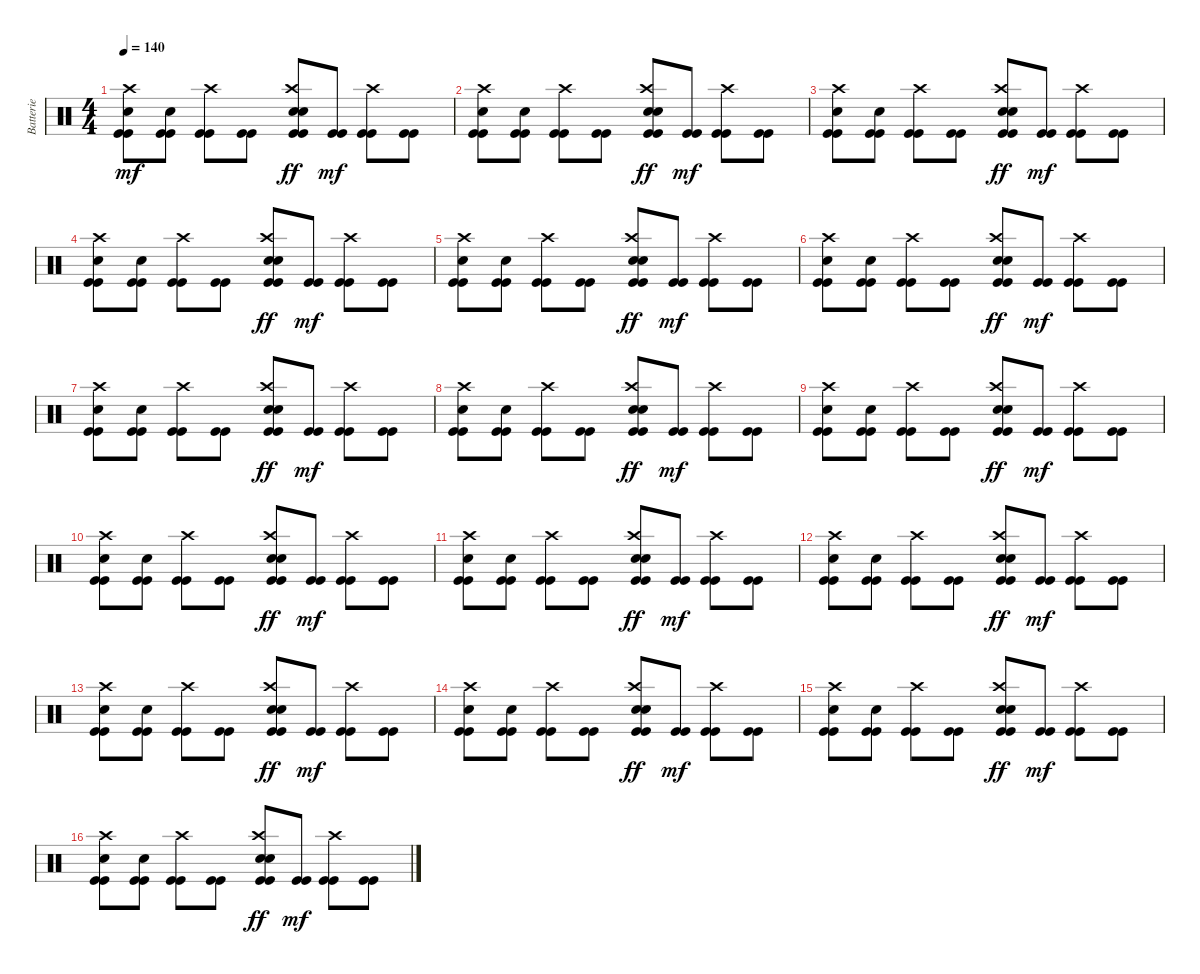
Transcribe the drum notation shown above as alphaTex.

\track ("Batterie " "Batterie ") {instrument percussion}
\staff {score}
\articulation defaults
\ts (4 4)
\tempo 140
\clef neutral
\ks c
("Kick (hit)" "Kick (hit)" "Snare (hit) 2" "Crash high (hit)").8{dy mf} ("Kick (hit)" "Kick (hit)" "Snare (hit) 2").8 ("Kick (hit)" "Kick (hit)" "Crash high (hit)").8 ("Kick (hit)" "Kick (hit)").8 ("Kick (hit)" "Kick (hit)" "Electric Snare (hit)" "Electric Snare (hit)" "Crash high (hit)").8{dy ff} ("Kick (hit)" "Kick (hit)").8{dy mf} ("Kick (hit)" "Kick (hit)" "Crash high (hit)").8 ("Kick (hit)" "Kick (hit)").8 |
("Kick (hit)" "Kick (hit)" "Snare (hit) 2" "Crash high (hit)").8 ("Kick (hit)" "Kick (hit)" "Snare (hit) 2").8 ("Kick (hit)" "Kick (hit)" "Crash high (hit)").8 ("Kick (hit)" "Kick (hit)").8 ("Kick (hit)" "Kick (hit)" "Electric Snare (hit)" "Electric Snare (hit)" "Crash high (hit)").8{dy ff} ("Kick (hit)" "Kick (hit)").8{dy mf} ("Kick (hit)" "Kick (hit)" "Crash high (hit)").8 ("Kick (hit)" "Kick (hit)").8 |
("Kick (hit)" "Kick (hit)" "Snare (hit) 2" "Crash high (hit)").8 ("Kick (hit)" "Kick (hit)" "Snare (hit) 2").8 ("Kick (hit)" "Kick (hit)" "Crash high (hit)").8 ("Kick (hit)" "Kick (hit)").8 ("Kick (hit)" "Kick (hit)" "Electric Snare (hit)" "Electric Snare (hit)" "Crash high (hit)").8{dy ff} ("Kick (hit)" "Kick (hit)").8{dy mf} ("Kick (hit)" "Kick (hit)" "Crash high (hit)").8 ("Kick (hit)" "Kick (hit)").8 |
("Kick (hit)" "Kick (hit)" "Snare (hit) 2" "Crash high (hit)").8 ("Kick (hit)" "Kick (hit)" "Snare (hit) 2").8 ("Kick (hit)" "Kick (hit)" "Crash high (hit)").8 ("Kick (hit)" "Kick (hit)").8 ("Kick (hit)" "Kick (hit)" "Electric Snare (hit)" "Electric Snare (hit)" "Crash high (hit)").8{dy ff} ("Kick (hit)" "Kick (hit)").8{dy mf} ("Kick (hit)" "Kick (hit)" "Crash high (hit)").8 ("Kick (hit)" "Kick (hit)").8 |
("Kick (hit)" "Kick (hit)" "Snare (hit) 2" "Crash high (hit)").8 ("Kick (hit)" "Kick (hit)" "Snare (hit) 2").8 ("Kick (hit)" "Kick (hit)" "Crash high (hit)").8 ("Kick (hit)" "Kick (hit)").8 ("Kick (hit)" "Kick (hit)" "Electric Snare (hit)" "Electric Snare (hit)" "Crash high (hit)").8{dy ff} ("Kick (hit)" "Kick (hit)").8{dy mf} ("Kick (hit)" "Kick (hit)" "Crash high (hit)").8 ("Kick (hit)" "Kick (hit)").8 |
("Kick (hit)" "Kick (hit)" "Snare (hit) 2" "Crash high (hit)").8 ("Kick (hit)" "Kick (hit)" "Snare (hit) 2").8 ("Kick (hit)" "Kick (hit)" "Crash high (hit)").8 ("Kick (hit)" "Kick (hit)").8 ("Kick (hit)" "Kick (hit)" "Electric Snare (hit)" "Electric Snare (hit)" "Crash high (hit)").8{dy ff} ("Kick (hit)" "Kick (hit)").8{dy mf} ("Kick (hit)" "Kick (hit)" "Crash high (hit)").8 ("Kick (hit)" "Kick (hit)").8 |
("Kick (hit)" "Kick (hit)" "Snare (hit) 2" "Crash high (hit)").8 ("Kick (hit)" "Kick (hit)" "Snare (hit) 2").8 ("Kick (hit)" "Kick (hit)" "Crash high (hit)").8 ("Kick (hit)" "Kick (hit)").8 ("Kick (hit)" "Kick (hit)" "Electric Snare (hit)" "Electric Snare (hit)" "Crash high (hit)").8{dy ff} ("Kick (hit)" "Kick (hit)").8{dy mf} ("Kick (hit)" "Kick (hit)" "Crash high (hit)").8 ("Kick (hit)" "Kick (hit)").8 |
("Kick (hit)" "Kick (hit)" "Snare (hit) 2" "Crash high (hit)").8 ("Kick (hit)" "Kick (hit)" "Snare (hit) 2").8 ("Kick (hit)" "Kick (hit)" "Crash high (hit)").8 ("Kick (hit)" "Kick (hit)").8 ("Kick (hit)" "Kick (hit)" "Electric Snare (hit)" "Electric Snare (hit)" "Crash high (hit)").8{dy ff} ("Kick (hit)" "Kick (hit)").8{dy mf} ("Kick (hit)" "Kick (hit)" "Crash high (hit)").8 ("Kick (hit)" "Kick (hit)").8 |
("Kick (hit)" "Kick (hit)" "Snare (hit) 2" "Crash high (hit)").8 ("Kick (hit)" "Kick (hit)" "Snare (hit) 2").8 ("Kick (hit)" "Kick (hit)" "Crash high (hit)").8 ("Kick (hit)" "Kick (hit)").8 ("Kick (hit)" "Kick (hit)" "Electric Snare (hit)" "Electric Snare (hit)" "Crash high (hit)").8{dy ff} ("Kick (hit)" "Kick (hit)").8{dy mf} ("Kick (hit)" "Kick (hit)" "Crash high (hit)").8 ("Kick (hit)" "Kick (hit)").8 |
("Kick (hit)" "Kick (hit)" "Snare (hit) 2" "Crash high (hit)").8 ("Kick (hit)" "Kick (hit)" "Snare (hit) 2").8 ("Kick (hit)" "Kick (hit)" "Crash high (hit)").8 ("Kick (hit)" "Kick (hit)").8 ("Kick (hit)" "Kick (hit)" "Electric Snare (hit)" "Electric Snare (hit)" "Crash high (hit)").8{dy ff} ("Kick (hit)" "Kick (hit)").8{dy mf} ("Kick (hit)" "Kick (hit)" "Crash high (hit)").8 ("Kick (hit)" "Kick (hit)").8 |
("Kick (hit)" "Kick (hit)" "Snare (hit) 2" "Crash high (hit)").8 ("Kick (hit)" "Kick (hit)" "Snare (hit) 2").8 ("Kick (hit)" "Kick (hit)" "Crash high (hit)").8 ("Kick (hit)" "Kick (hit)").8 ("Kick (hit)" "Kick (hit)" "Electric Snare (hit)" "Electric Snare (hit)" "Crash high (hit)").8{dy ff} ("Kick (hit)" "Kick (hit)").8{dy mf} ("Kick (hit)" "Kick (hit)" "Crash high (hit)").8 ("Kick (hit)" "Kick (hit)").8 |
("Kick (hit)" "Kick (hit)" "Snare (hit) 2" "Crash high (hit)").8 ("Kick (hit)" "Kick (hit)" "Snare (hit) 2").8 ("Kick (hit)" "Kick (hit)" "Crash high (hit)").8 ("Kick (hit)" "Kick (hit)").8 ("Kick (hit)" "Kick (hit)" "Electric Snare (hit)" "Electric Snare (hit)" "Crash high (hit)").8{dy ff} ("Kick (hit)" "Kick (hit)").8{dy mf} ("Kick (hit)" "Kick (hit)" "Crash high (hit)").8 ("Kick (hit)" "Kick (hit)").8 |
\section ("" "")
("Kick (hit)" "Kick (hit)" "Snare (hit) 2" "Crash high (hit)").8 ("Kick (hit)" "Kick (hit)" "Snare (hit) 2").8 ("Kick (hit)" "Kick (hit)" "Crash high (hit)").8 ("Kick (hit)" "Kick (hit)").8 ("Kick (hit)" "Kick (hit)" "Electric Snare (hit)" "Electric Snare (hit)" "Crash high (hit)").8{dy ff} ("Kick (hit)" "Kick (hit)").8{dy mf} ("Kick (hit)" "Kick (hit)" "Crash high (hit)").8 ("Kick (hit)" "Kick (hit)").8 |
("Kick (hit)" "Kick (hit)" "Snare (hit) 2" "Crash high (hit)").8 ("Kick (hit)" "Kick (hit)" "Snare (hit) 2").8 ("Kick (hit)" "Kick (hit)" "Crash high (hit)").8 ("Kick (hit)" "Kick (hit)").8 ("Kick (hit)" "Kick (hit)" "Electric Snare (hit)" "Electric Snare (hit)" "Crash high (hit)").8{dy ff} ("Kick (hit)" "Kick (hit)").8{dy mf} ("Kick (hit)" "Kick (hit)" "Crash high (hit)").8 ("Kick (hit)" "Kick (hit)").8 |
("Kick (hit)" "Kick (hit)" "Snare (hit) 2" "Crash high (hit)").8 ("Kick (hit)" "Kick (hit)" "Snare (hit) 2").8 ("Kick (hit)" "Kick (hit)" "Crash high (hit)").8 ("Kick (hit)" "Kick (hit)").8 ("Kick (hit)" "Kick (hit)" "Electric Snare (hit)" "Electric Snare (hit)" "Crash high (hit)").8{dy ff} ("Kick (hit)" "Kick (hit)").8{dy mf} ("Kick (hit)" "Kick (hit)" "Crash high (hit)").8 ("Kick (hit)" "Kick (hit)").8 |
("Kick (hit)" "Kick (hit)" "Snare (hit) 2" "Crash high (hit)").8 ("Kick (hit)" "Kick (hit)" "Snare (hit) 2").8 ("Kick (hit)" "Kick (hit)" "Crash high (hit)").8 ("Kick (hit)" "Kick (hit)").8 ("Kick (hit)" "Kick (hit)" "Electric Snare (hit)" "Electric Snare (hit)" "Crash high (hit)").8{dy ff} ("Kick (hit)" "Kick (hit)").8{dy mf} ("Kick (hit)" "Kick (hit)" "Crash high (hit)").8 ("Kick (hit)" "Kick (hit)").8
